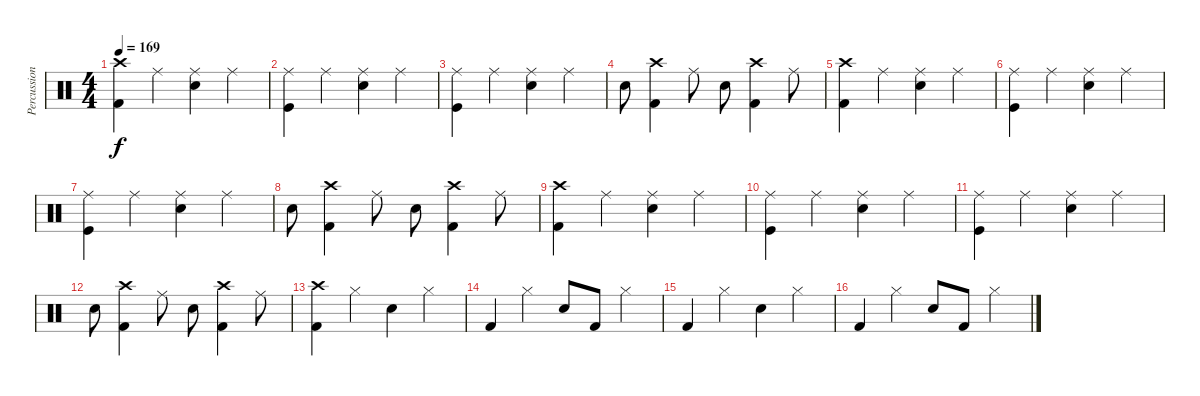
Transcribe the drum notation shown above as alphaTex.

\track ("Percussion" "Percussion") {instrument percussion}
\staff {score}
\articulation defaults
\ts (4 4)
\tempo 169
\clef neutral
\ks c
("Crash high (hit)" "Kick (hit) 2").4{dy f} "Ride (middle)".4 ("Ride (middle)" "Snare (hit) 2").4 "Ride (middle)".4 |
("Ride (middle)" "Kick (hit)").4 "Ride (middle)".4 ("Snare (hit) 2" "Ride (middle)").4 "Ride (middle)".4 |
("Ride (middle)" "Kick (hit)").4 "Ride (middle)".4 ("Snare (hit) 2" "Ride (middle)").4 "Ride (middle)".4 |
"Snare (hit) 2".8 ("Kick (hit) 2" "Crash high (hit)").4 "Ride (middle)".8 "Snare (hit) 2".8 ("Kick (hit) 2" "Crash high (hit)").4 "Ride (middle)".8 |
("Crash high (hit)" "Kick (hit) 2").4 "Ride (middle)".4 ("Ride (middle)" "Snare (hit) 2").4 "Ride (middle)".4 |
("Ride (middle)" "Kick (hit)").4 "Ride (middle)".4 ("Snare (hit) 2" "Ride (middle)").4 "Ride (middle)".4 |
("Ride (middle)" "Kick (hit)").4 "Ride (middle)".4 ("Snare (hit) 2" "Ride (middle)").4 "Ride (middle)".4 |
"Snare (hit) 2".8 ("Kick (hit) 2" "Crash high (hit)").4 "Ride (middle)".8 "Snare (hit) 2".8 ("Kick (hit) 2" "Crash high (hit)").4 "Ride (middle)".8 |
("Crash high (hit)" "Kick (hit) 2").4 "Ride (middle)".4 ("Ride (middle)" "Snare (hit) 2").4 "Ride (middle)".4 |
("Ride (middle)" "Kick (hit)").4 "Ride (middle)".4 ("Snare (hit) 2" "Ride (middle)").4 "Ride (middle)".4 |
("Ride (middle)" "Kick (hit)").4 "Ride (middle)".4 ("Snare (hit) 2" "Ride (middle)").4 "Ride (middle)".4 |
"Snare (hit) 2".8 ("Kick (hit) 2" "Crash high (hit)").4 "Ride (middle)".8 "Snare (hit) 2".8 ("Kick (hit) 2" "Crash high (hit)").4 "Ride (middle)".8 |
("Crash high (hit)" "Kick (hit) 2").4 "Hi-Hat (closed)".4 "Snare (hit) 2".4 "Hi-Hat (closed)".4 |
"Kick (hit) 2".4 "Hi-Hat (closed)".4 "Snare (hit) 2".8 "Kick (hit) 2".8 "Hi-Hat (closed)".4 |
"Kick (hit) 2".4 "Hi-Hat (closed)".4 "Snare (hit) 2".4 "Hi-Hat (closed)".4 |
"Kick (hit) 2".4 "Hi-Hat (closed)".4 "Snare (hit) 2".8 "Kick (hit) 2".8 "Hi-Hat (closed)".4
